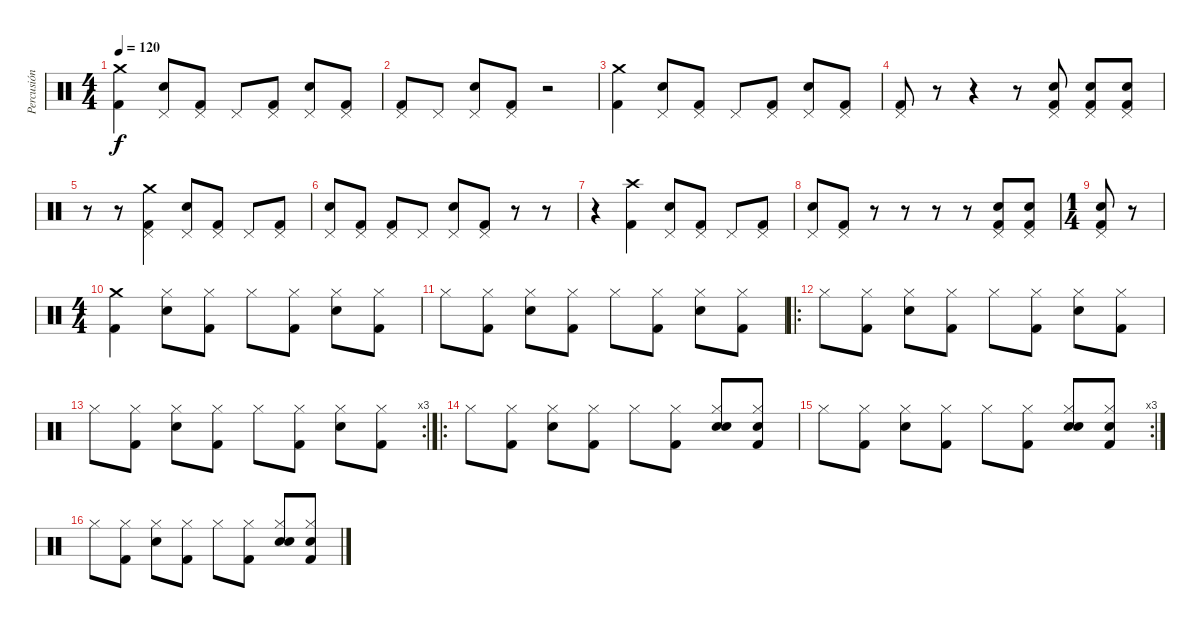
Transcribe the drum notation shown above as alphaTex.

\track ("Percusión" "Percusión") {instrument percussion}
\staff {score}
\articulation defaults
\ts (4 4)
\tempo 120
\clef neutral
\ks c
("Crash medium (hit)" "Kick (hit) 2").4{dy f} ("Pedal Hi-Hat (hit)" "Electric Snare (hit)").8 ("Pedal Hi-Hat (hit)" "Kick (hit) 2").8 "Pedal Hi-Hat (hit)".8 ("Pedal Hi-Hat (hit)" "Kick (hit) 2").8 ("Pedal Hi-Hat (hit)" "Electric Snare (hit)").8 ("Pedal Hi-Hat (hit)" "Kick (hit) 2").8 |
("Pedal Hi-Hat (hit)" "Kick (hit) 2").8 "Pedal Hi-Hat (hit)".8 ("Pedal Hi-Hat (hit)" "Electric Snare (hit)").8 ("Pedal Hi-Hat (hit)" "Kick (hit) 2").8 r.2 |
("Crash medium (hit)" "Kick (hit) 2").4 ("Pedal Hi-Hat (hit)" "Electric Snare (hit)").8 ("Pedal Hi-Hat (hit)" "Kick (hit) 2").8 "Pedal Hi-Hat (hit)".8 ("Pedal Hi-Hat (hit)" "Kick (hit) 2").8 ("Pedal Hi-Hat (hit)" "Electric Snare (hit)").8 ("Pedal Hi-Hat (hit)" "Kick (hit) 2").8 |
("Pedal Hi-Hat (hit)" "Kick (hit) 2").8 r.8 r.4 r.8 ("Pedal Hi-Hat (hit)" "Electric Snare (hit)" "Kick (hit) 2").8 ("Pedal Hi-Hat (hit)" "Electric Snare (hit)" "Kick (hit) 2").8 ("Pedal Hi-Hat (hit)" "Electric Snare (hit)" "Kick (hit) 2").8 |
r.8 r.8 ("Crash medium (hit)" "Pedal Hi-Hat (hit)" "Kick (hit) 2").4 ("Pedal Hi-Hat (hit)" "Electric Snare (hit)").8 ("Pedal Hi-Hat (hit)" "Kick (hit) 2").8 "Pedal Hi-Hat (hit)".8 ("Pedal Hi-Hat (hit)" "Kick (hit) 2").8 |
("Pedal Hi-Hat (hit)" "Electric Snare (hit)").8 ("Pedal Hi-Hat (hit)" "Kick (hit) 2").8 ("Pedal Hi-Hat (hit)" "Kick (hit) 2").8 "Pedal Hi-Hat (hit)".8 ("Pedal Hi-Hat (hit)" "Electric Snare (hit)").8 ("Pedal Hi-Hat (hit)" "Kick (hit) 2").8 r.8 r.8 |
r.4 ("Crash high (hit)" "Kick (hit) 2").4 ("Pedal Hi-Hat (hit)" "Electric Snare (hit)").8 ("Pedal Hi-Hat (hit)" "Kick (hit) 2").8 "Pedal Hi-Hat (hit)".8 ("Pedal Hi-Hat (hit)" "Kick (hit) 2").8 |
("Pedal Hi-Hat (hit)" "Electric Snare (hit)").8 ("Pedal Hi-Hat (hit)" "Kick (hit) 2").8 r.8 r.8 r.8 r.8 ("Pedal Hi-Hat (hit)" "Electric Snare (hit)" "Kick (hit) 2").8 ("Pedal Hi-Hat (hit)" "Electric Snare (hit)" "Kick (hit) 2").8 |
\ts (1 4)
("Pedal Hi-Hat (hit)" "Electric Snare (hit)" "Kick (hit) 2").8 r.8 |
\ts (4 4)
("Crash medium (hit)" "Kick (hit) 2").4 ("Hi-Hat (closed)" "Electric Snare (hit)").8 ("Hi-Hat (closed)" "Kick (hit) 2").8 "Hi-Hat (closed)".8 ("Hi-Hat (closed)" "Kick (hit) 2").8 ("Hi-Hat (closed)" "Electric Snare (hit)").8 ("Hi-Hat (closed)" "Kick (hit) 2").8 |
"Hi-Hat (closed)".8 ("Hi-Hat (closed)" "Kick (hit) 2").8 ("Hi-Hat (closed)" "Electric Snare (hit)").8 ("Hi-Hat (closed)" "Kick (hit) 2").8 "Hi-Hat (closed)".8 ("Hi-Hat (closed)" "Kick (hit) 2").8 ("Hi-Hat (closed)" "Electric Snare (hit)").8 ("Hi-Hat (closed)" "Kick (hit) 2").8 |
\ro "Hi-Hat (closed)".8
("Hi-Hat (closed)" "Kick (hit) 2").8 ("Hi-Hat (closed)" "Electric Snare (hit)").8 ("Hi-Hat (closed)" "Kick (hit) 2").8 "Hi-Hat (closed)".8 ("Hi-Hat (closed)" "Kick (hit) 2").8 ("Hi-Hat (closed)" "Electric Snare (hit)").8 ("Hi-Hat (closed)" "Kick (hit) 2").8 |
\rc 3 "Hi-Hat (closed)".8
("Hi-Hat (closed)" "Kick (hit) 2").8 ("Hi-Hat (closed)" "Electric Snare (hit)").8 ("Hi-Hat (closed)" "Kick (hit) 2").8 "Hi-Hat (closed)".8 ("Hi-Hat (closed)" "Kick (hit) 2").8 ("Hi-Hat (closed)" "Electric Snare (hit)").8 ("Hi-Hat (closed)" "Kick (hit) 2").8 |
\ro "Hi-Hat (closed)".8
("Hi-Hat (closed)" "Kick (hit) 2").8 ("Hi-Hat (closed)" "Electric Snare (hit)").8 ("Hi-Hat (closed)" "Kick (hit) 2").8 "Hi-Hat (closed)".8 ("Hi-Hat (closed)" "Kick (hit) 2").8 ("Hand Clap (hit)" "Hi-Hat (closed)" "Electric Snare (hit)").8 ("Hand Clap (hit)" "Hi-Hat (closed)" "Kick (hit) 2").8 |
\rc 3 "Hi-Hat (closed)".8
("Hi-Hat (closed)" "Kick (hit) 2").8 ("Hi-Hat (closed)" "Electric Snare (hit)").8 ("Hi-Hat (closed)" "Kick (hit) 2").8 "Hi-Hat (closed)".8 ("Hi-Hat (closed)" "Kick (hit) 2").8 ("Hand Clap (hit)" "Hi-Hat (closed)" "Electric Snare (hit)").8 ("Hand Clap (hit)" "Hi-Hat (closed)" "Kick (hit) 2").8 |
"Hi-Hat (closed)".8 ("Hi-Hat (closed)" "Kick (hit) 2").8 ("Hi-Hat (closed)" "Electric Snare (hit)").8 ("Hi-Hat (closed)" "Kick (hit) 2").8 "Hi-Hat (closed)".8 ("Hi-Hat (closed)" "Kick (hit) 2").8 ("Hand Clap (hit)" "Hi-Hat (closed)" "Electric Snare (hit)").8 ("Hand Clap (hit)" "Hi-Hat (closed)" "Kick (hit) 2").8
